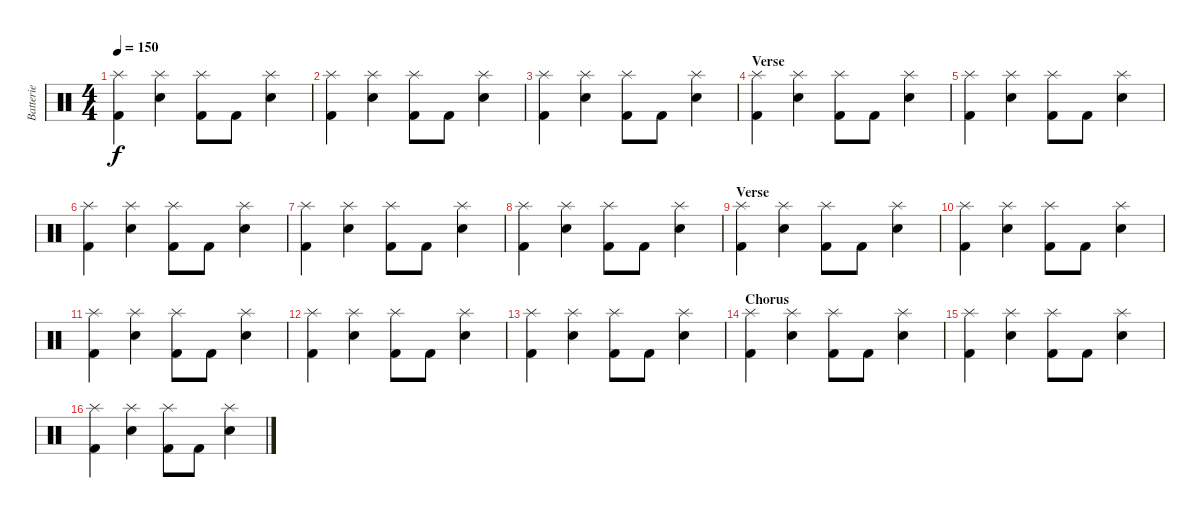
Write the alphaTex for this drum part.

\track ("Batterie" "Batterie") {instrument percussion}
\staff {score}
\articulation defaults
\ts (4 4)
\tempo 150
\clef neutral
\ks c
("Splash (hit)" "Kick (hit) 2").4{dy f} ("Splash (hit)" "Electric Snare (hit)").4 ("Splash (hit)" "Kick (hit) 2").8 "Kick (hit) 2".8 ("Splash (hit)" "Electric Snare (hit)").4 |
("Splash (hit)" "Kick (hit) 2").4 ("Splash (hit)" "Electric Snare (hit)").4 ("Splash (hit)" "Kick (hit) 2").8 "Kick (hit) 2".8 ("Splash (hit)" "Electric Snare (hit)").4 |
("Splash (hit)" "Kick (hit) 2").4 ("Splash (hit)" "Electric Snare (hit)").4 ("Splash (hit)" "Kick (hit) 2").8 "Kick (hit) 2".8 ("Splash (hit)" "Electric Snare (hit)").4 |
\section ("" "Verse ")
("Splash (hit)" "Kick (hit) 2").4 ("Splash (hit)" "Electric Snare (hit)").4 ("Splash (hit)" "Kick (hit) 2").8 "Kick (hit) 2".8 ("Splash (hit)" "Electric Snare (hit)").4 |
("Splash (hit)" "Kick (hit) 2").4 ("Splash (hit)" "Electric Snare (hit)").4 ("Splash (hit)" "Kick (hit) 2").8 "Kick (hit) 2".8 ("Splash (hit)" "Electric Snare (hit)").4 |
("Splash (hit)" "Kick (hit) 2").4 ("Splash (hit)" "Electric Snare (hit)").4 ("Splash (hit)" "Kick (hit) 2").8 "Kick (hit) 2".8 ("Splash (hit)" "Electric Snare (hit)").4 |
("Splash (hit)" "Kick (hit) 2").4 ("Splash (hit)" "Electric Snare (hit)").4 ("Splash (hit)" "Kick (hit) 2").8 "Kick (hit) 2".8 ("Splash (hit)" "Electric Snare (hit)").4 |
("Splash (hit)" "Kick (hit) 2").4 ("Splash (hit)" "Electric Snare (hit)").4 ("Splash (hit)" "Kick (hit) 2").8 "Kick (hit) 2".8 ("Splash (hit)" "Electric Snare (hit)").4 |
\section ("" "Verse")
("Splash (hit)" "Kick (hit) 2").4 ("Splash (hit)" "Electric Snare (hit)").4 ("Splash (hit)" "Kick (hit) 2").8 "Kick (hit) 2".8 ("Splash (hit)" "Electric Snare (hit)").4 |
("Splash (hit)" "Kick (hit) 2").4 ("Splash (hit)" "Electric Snare (hit)").4 ("Splash (hit)" "Kick (hit) 2").8 "Kick (hit) 2".8 ("Splash (hit)" "Electric Snare (hit)").4 |
("Splash (hit)" "Kick (hit) 2").4 ("Splash (hit)" "Electric Snare (hit)").4 ("Splash (hit)" "Kick (hit) 2").8 "Kick (hit) 2".8 ("Splash (hit)" "Electric Snare (hit)").4 |
("Splash (hit)" "Kick (hit) 2").4 ("Splash (hit)" "Electric Snare (hit)").4 ("Splash (hit)" "Kick (hit) 2").8 "Kick (hit) 2".8 ("Splash (hit)" "Electric Snare (hit)").4 |
("Splash (hit)" "Kick (hit) 2").4 ("Splash (hit)" "Electric Snare (hit)").4 ("Splash (hit)" "Kick (hit) 2").8 "Kick (hit) 2".8 ("Splash (hit)" "Electric Snare (hit)").4 |
\section ("" "Chorus")
("Splash (hit)" "Kick (hit) 2").4 ("Splash (hit)" "Electric Snare (hit)").4 ("Splash (hit)" "Kick (hit) 2").8 "Kick (hit) 2".8 ("Splash (hit)" "Electric Snare (hit)").4 |
("Splash (hit)" "Kick (hit) 2").4 ("Splash (hit)" "Electric Snare (hit)").4 ("Splash (hit)" "Kick (hit) 2").8 "Kick (hit) 2".8 ("Splash (hit)" "Electric Snare (hit)").4 |
("Splash (hit)" "Kick (hit) 2").4 ("Splash (hit)" "Electric Snare (hit)").4 ("Splash (hit)" "Kick (hit) 2").8 "Kick (hit) 2".8 ("Splash (hit)" "Electric Snare (hit)").4
